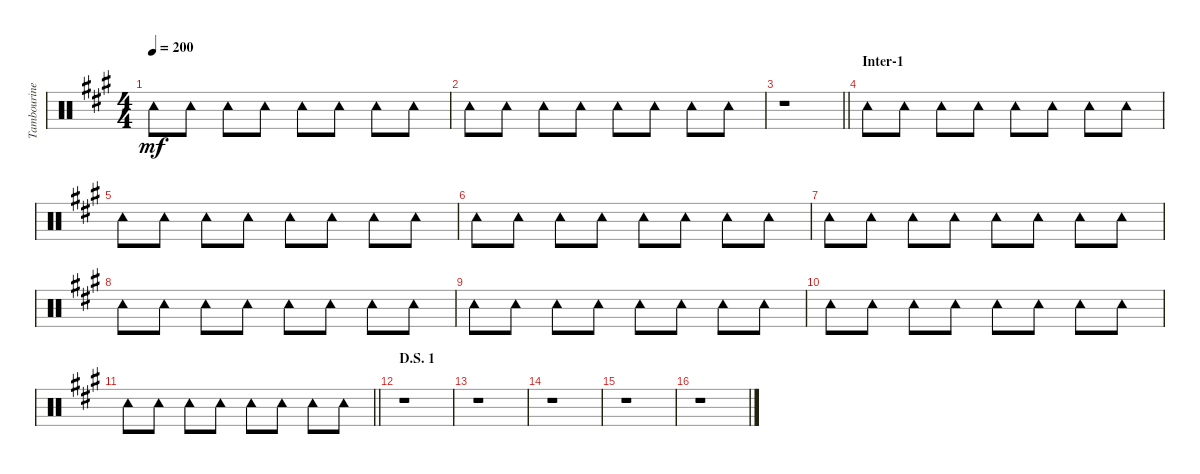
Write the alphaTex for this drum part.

\track ("Tambourine" "Tambourine") {instrument percussion}
\staff {score}
\articulation defaults
\ts (4 4)
\tempo 200
\clef neutral
\ks a "Tambourine (hit)".8{dy mf} "Tambourine (hit)".8 "Tambourine (hit)".8 "Tambourine (hit)".8 "Tambourine (hit)".8 "Tambourine (hit)".8 "Tambourine (hit)".8 "Tambourine (hit)".8
|
"Tambourine (hit)".8 "Tambourine (hit)".8 "Tambourine (hit)".8 "Tambourine (hit)".8 "Tambourine (hit)".8 "Tambourine (hit)".8 "Tambourine (hit)".8 "Tambourine (hit)".8 |
\barLineRight lightlight
r.1 |
\section ("" "Inter-1")
"Tambourine (hit)".8 "Tambourine (hit)".8 "Tambourine (hit)".8 "Tambourine (hit)".8 "Tambourine (hit)".8 "Tambourine (hit)".8 "Tambourine (hit)".8 "Tambourine (hit)".8 |
"Tambourine (hit)".8 "Tambourine (hit)".8 "Tambourine (hit)".8 "Tambourine (hit)".8 "Tambourine (hit)".8 "Tambourine (hit)".8 "Tambourine (hit)".8 "Tambourine (hit)".8 |
"Tambourine (hit)".8 "Tambourine (hit)".8 "Tambourine (hit)".8 "Tambourine (hit)".8 "Tambourine (hit)".8 "Tambourine (hit)".8 "Tambourine (hit)".8 "Tambourine (hit)".8 |
"Tambourine (hit)".8 "Tambourine (hit)".8 "Tambourine (hit)".8 "Tambourine (hit)".8 "Tambourine (hit)".8 "Tambourine (hit)".8 "Tambourine (hit)".8 "Tambourine (hit)".8 |
"Tambourine (hit)".8 "Tambourine (hit)".8 "Tambourine (hit)".8 "Tambourine (hit)".8 "Tambourine (hit)".8 "Tambourine (hit)".8 "Tambourine (hit)".8 "Tambourine (hit)".8 |
"Tambourine (hit)".8 "Tambourine (hit)".8 "Tambourine (hit)".8 "Tambourine (hit)".8 "Tambourine (hit)".8 "Tambourine (hit)".8 "Tambourine (hit)".8 "Tambourine (hit)".8 |
"Tambourine (hit)".8 "Tambourine (hit)".8 "Tambourine (hit)".8 "Tambourine (hit)".8 "Tambourine (hit)".8 "Tambourine (hit)".8 "Tambourine (hit)".8 "Tambourine (hit)".8 |
\barLineRight lightlight "Tambourine (hit)".8 "Tambourine (hit)".8 "Tambourine (hit)".8 "Tambourine (hit)".8 "Tambourine (hit)".8 "Tambourine (hit)".8 "Tambourine (hit)".8 "Tambourine (hit)".8
|
\section ("" "D.S. 1")
r.1 |
r.1 |
r.1 |
r.1 |
r.1
